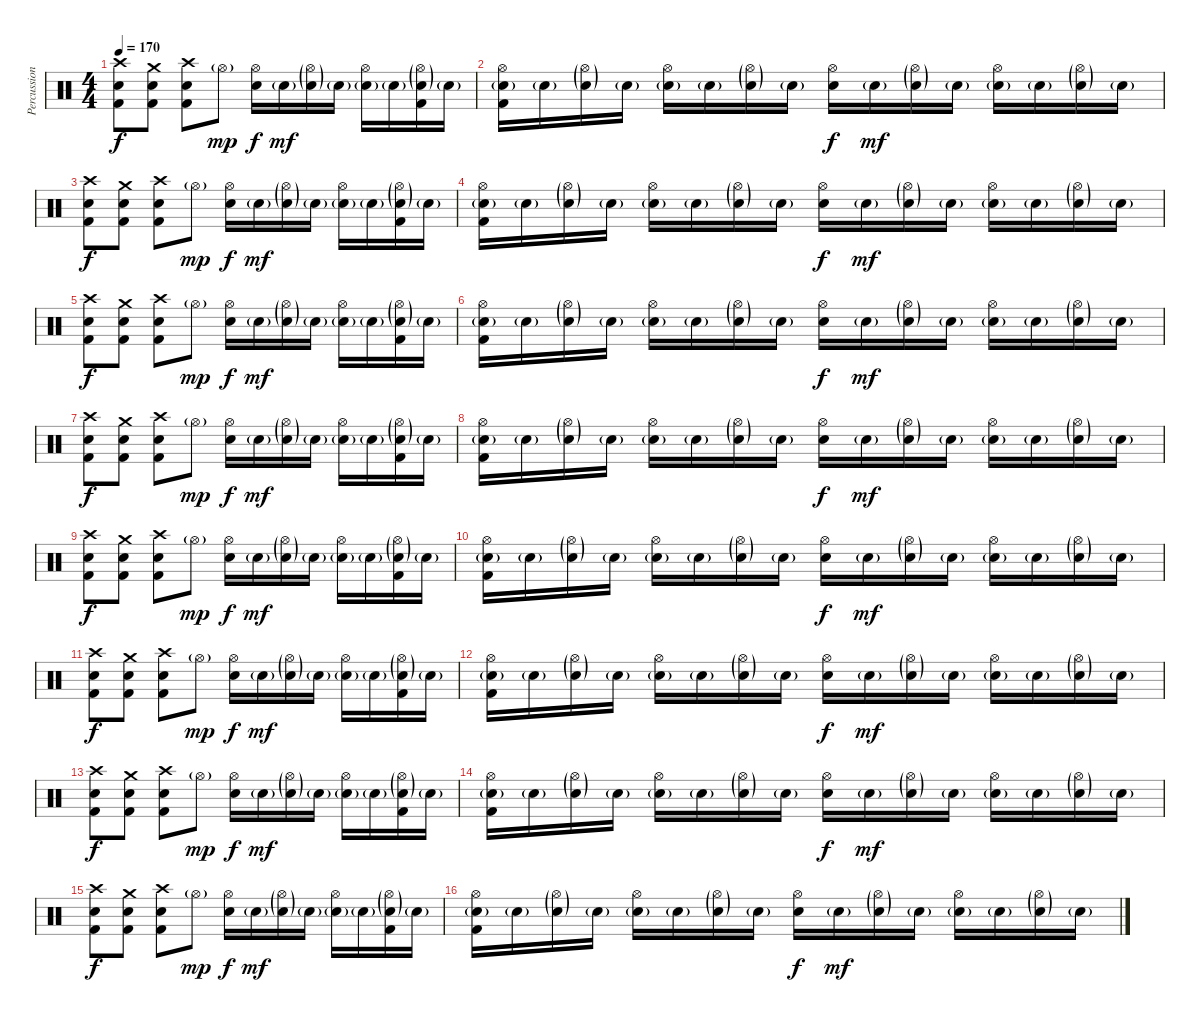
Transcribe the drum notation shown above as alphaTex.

\track ("Percussion" "Percussion") {instrument percussion}
\staff {score}
\articulation defaults
\ts (4 4)
\tempo 170
\clef neutral
\ks c
("Crash high (hit)" "Kick (hit) 2" "Electric Snare (hit)").8{dy f} ("Crash medium (hit)" "Kick (hit) 2" "Electric Snare (hit)").8 ("Crash high (hit)" "Kick (hit) 2" "Electric Snare (hit)").8 "Hi-Hat (open)"{g}.8{dy mp} ("Hi-Hat (open)" "Electric Snare (hit)").16{dy f} "Electric Snare (hit)"{g}.16{dy mf} ("Hi-Hat (open)"{g} "Electric Snare (hit)"{g}).16 "Electric Snare (hit)"{g}.16 ("Hi-Hat (open)" "Electric Snare (hit)"{g}).16 "Electric Snare (hit)"{g}.16 ("Hi-Hat (open)"{g} "Kick (hit) 2" "Electric Snare (hit)"{g}).16 "Electric Snare (hit)"{g}.16 |
("Hi-Hat (open)" "Kick (hit) 2" "Electric Snare (hit)"{g}).16 "Electric Snare (hit)"{g}.16 ("Hi-Hat (open)"{g} "Electric Snare (hit)"{g}).16 "Electric Snare (hit)"{g}.16 ("Hi-Hat (open)" "Electric Snare (hit)"{g}).16 "Electric Snare (hit)"{g}.16 ("Hi-Hat (open)"{g} "Electric Snare (hit)"{g}).16 "Electric Snare (hit)"{g}.16 ("Hi-Hat (open)" "Electric Snare (hit)").16{dy f} "Electric Snare (hit)"{g}.16{dy mf} ("Hi-Hat (open)"{g} "Electric Snare (hit)"{g}).16 "Electric Snare (hit)"{g}.16 ("Hi-Hat (open)" "Electric Snare (hit)"{g}).16 "Electric Snare (hit)"{g}.16 ("Hi-Hat (open)"{g} "Electric Snare (hit)"{g}).16 "Electric Snare (hit)"{g}.16 |
("Crash high (hit)" "Kick (hit) 2" "Electric Snare (hit)").8{dy f} ("Crash medium (hit)" "Kick (hit) 2" "Electric Snare (hit)").8 ("Crash high (hit)" "Kick (hit) 2" "Electric Snare (hit)").8 "Hi-Hat (open)"{g}.8{dy mp} ("Hi-Hat (open)" "Electric Snare (hit)").16{dy f} "Electric Snare (hit)"{g}.16{dy mf} ("Hi-Hat (open)"{g} "Electric Snare (hit)"{g}).16 "Electric Snare (hit)"{g}.16 ("Hi-Hat (open)" "Electric Snare (hit)"{g}).16 "Electric Snare (hit)"{g}.16 ("Hi-Hat (open)"{g} "Kick (hit) 2" "Electric Snare (hit)"{g}).16 "Electric Snare (hit)"{g}.16 |
("Hi-Hat (open)" "Kick (hit) 2" "Electric Snare (hit)"{g}).16 "Electric Snare (hit)"{g}.16 ("Hi-Hat (open)"{g} "Electric Snare (hit)"{g}).16 "Electric Snare (hit)"{g}.16 ("Hi-Hat (open)" "Electric Snare (hit)"{g}).16 "Electric Snare (hit)"{g}.16 ("Hi-Hat (open)"{g} "Electric Snare (hit)"{g}).16 "Electric Snare (hit)"{g}.16 ("Hi-Hat (open)" "Electric Snare (hit)").16{dy f} "Electric Snare (hit)"{g}.16{dy mf} ("Hi-Hat (open)"{g} "Electric Snare (hit)"{g}).16 "Electric Snare (hit)"{g}.16 ("Hi-Hat (open)" "Electric Snare (hit)"{g}).16 "Electric Snare (hit)"{g}.16 ("Hi-Hat (open)"{g} "Electric Snare (hit)"{g}).16 "Electric Snare (hit)"{g}.16 |
("Crash high (hit)" "Kick (hit) 2" "Electric Snare (hit)").8{dy f} ("Crash medium (hit)" "Kick (hit) 2" "Electric Snare (hit)").8 ("Crash high (hit)" "Kick (hit) 2" "Electric Snare (hit)").8 "Hi-Hat (open)"{g}.8{dy mp} ("Hi-Hat (open)" "Electric Snare (hit)").16{dy f} "Electric Snare (hit)"{g}.16{dy mf} ("Hi-Hat (open)"{g} "Electric Snare (hit)"{g}).16 "Electric Snare (hit)"{g}.16 ("Hi-Hat (open)" "Electric Snare (hit)"{g}).16 "Electric Snare (hit)"{g}.16 ("Hi-Hat (open)"{g} "Kick (hit) 2" "Electric Snare (hit)"{g}).16 "Electric Snare (hit)"{g}.16 |
("Hi-Hat (open)" "Kick (hit) 2" "Electric Snare (hit)"{g}).16 "Electric Snare (hit)"{g}.16 ("Hi-Hat (open)"{g} "Electric Snare (hit)"{g}).16 "Electric Snare (hit)"{g}.16 ("Hi-Hat (open)" "Electric Snare (hit)"{g}).16 "Electric Snare (hit)"{g}.16 ("Hi-Hat (open)"{g} "Electric Snare (hit)"{g}).16 "Electric Snare (hit)"{g}.16 ("Hi-Hat (open)" "Electric Snare (hit)").16{dy f} "Electric Snare (hit)"{g}.16{dy mf} ("Hi-Hat (open)"{g} "Electric Snare (hit)"{g}).16 "Electric Snare (hit)"{g}.16 ("Hi-Hat (open)" "Electric Snare (hit)"{g}).16 "Electric Snare (hit)"{g}.16 ("Hi-Hat (open)"{g} "Electric Snare (hit)"{g}).16 "Electric Snare (hit)"{g}.16 |
("Crash high (hit)" "Kick (hit) 2" "Electric Snare (hit)").8{dy f} ("Crash medium (hit)" "Kick (hit) 2" "Electric Snare (hit)").8 ("Crash high (hit)" "Kick (hit) 2" "Electric Snare (hit)").8 "Hi-Hat (open)"{g}.8{dy mp} ("Hi-Hat (open)" "Electric Snare (hit)").16{dy f} "Electric Snare (hit)"{g}.16{dy mf} ("Hi-Hat (open)"{g} "Electric Snare (hit)"{g}).16 "Electric Snare (hit)"{g}.16 ("Hi-Hat (open)" "Electric Snare (hit)"{g}).16 "Electric Snare (hit)"{g}.16 ("Hi-Hat (open)"{g} "Kick (hit) 2" "Electric Snare (hit)"{g}).16 "Electric Snare (hit)"{g}.16 |
("Hi-Hat (open)" "Kick (hit) 2" "Electric Snare (hit)"{g}).16 "Electric Snare (hit)"{g}.16 ("Hi-Hat (open)"{g} "Electric Snare (hit)"{g}).16 "Electric Snare (hit)"{g}.16 ("Hi-Hat (open)" "Electric Snare (hit)"{g}).16 "Electric Snare (hit)"{g}.16 ("Hi-Hat (open)"{g} "Electric Snare (hit)"{g}).16 "Electric Snare (hit)"{g}.16 ("Hi-Hat (open)" "Electric Snare (hit)").16{dy f} "Electric Snare (hit)"{g}.16{dy mf} ("Hi-Hat (open)"{g} "Electric Snare (hit)"{g}).16 "Electric Snare (hit)"{g}.16 ("Hi-Hat (open)" "Electric Snare (hit)"{g}).16 "Electric Snare (hit)"{g}.16 ("Hi-Hat (open)"{g} "Electric Snare (hit)"{g}).16 "Electric Snare (hit)"{g}.16 |
("Crash high (hit)" "Kick (hit) 2" "Electric Snare (hit)").8{dy f} ("Crash medium (hit)" "Kick (hit) 2" "Electric Snare (hit)").8 ("Crash high (hit)" "Kick (hit) 2" "Electric Snare (hit)").8 "Hi-Hat (open)"{g}.8{dy mp} ("Hi-Hat (open)" "Electric Snare (hit)").16{dy f} "Electric Snare (hit)"{g}.16{dy mf} ("Hi-Hat (open)"{g} "Electric Snare (hit)"{g}).16 "Electric Snare (hit)"{g}.16 ("Hi-Hat (open)" "Electric Snare (hit)"{g}).16 "Electric Snare (hit)"{g}.16 ("Hi-Hat (open)"{g} "Kick (hit) 2" "Electric Snare (hit)"{g}).16 "Electric Snare (hit)"{g}.16 |
("Hi-Hat (open)" "Kick (hit) 2" "Electric Snare (hit)"{g}).16 "Electric Snare (hit)"{g}.16 ("Hi-Hat (open)"{g} "Electric Snare (hit)"{g}).16 "Electric Snare (hit)"{g}.16 ("Hi-Hat (open)" "Electric Snare (hit)"{g}).16 "Electric Snare (hit)"{g}.16 ("Hi-Hat (open)"{g} "Electric Snare (hit)"{g}).16 "Electric Snare (hit)"{g}.16 ("Hi-Hat (open)" "Electric Snare (hit)").16{dy f} "Electric Snare (hit)"{g}.16{dy mf} ("Hi-Hat (open)"{g} "Electric Snare (hit)"{g}).16 "Electric Snare (hit)"{g}.16 ("Hi-Hat (open)" "Electric Snare (hit)"{g}).16 "Electric Snare (hit)"{g}.16 ("Hi-Hat (open)"{g} "Electric Snare (hit)"{g}).16 "Electric Snare (hit)"{g}.16 |
("Crash high (hit)" "Kick (hit) 2" "Electric Snare (hit)").8{dy f} ("Crash medium (hit)" "Kick (hit) 2" "Electric Snare (hit)").8 ("Crash high (hit)" "Kick (hit) 2" "Electric Snare (hit)").8 "Hi-Hat (open)"{g}.8{dy mp} ("Hi-Hat (open)" "Electric Snare (hit)").16{dy f} "Electric Snare (hit)"{g}.16{dy mf} ("Hi-Hat (open)"{g} "Electric Snare (hit)"{g}).16 "Electric Snare (hit)"{g}.16 ("Hi-Hat (open)" "Electric Snare (hit)"{g}).16 "Electric Snare (hit)"{g}.16 ("Hi-Hat (open)"{g} "Kick (hit) 2" "Electric Snare (hit)"{g}).16 "Electric Snare (hit)"{g}.16 |
("Hi-Hat (open)" "Kick (hit) 2" "Electric Snare (hit)"{g}).16 "Electric Snare (hit)"{g}.16 ("Hi-Hat (open)"{g} "Electric Snare (hit)"{g}).16 "Electric Snare (hit)"{g}.16 ("Hi-Hat (open)" "Electric Snare (hit)"{g}).16 "Electric Snare (hit)"{g}.16 ("Hi-Hat (open)"{g} "Electric Snare (hit)"{g}).16 "Electric Snare (hit)"{g}.16 ("Hi-Hat (open)" "Electric Snare (hit)").16{dy f} "Electric Snare (hit)"{g}.16{dy mf} ("Hi-Hat (open)"{g} "Electric Snare (hit)"{g}).16 "Electric Snare (hit)"{g}.16 ("Hi-Hat (open)" "Electric Snare (hit)"{g}).16 "Electric Snare (hit)"{g}.16 ("Hi-Hat (open)"{g} "Electric Snare (hit)"{g}).16 "Electric Snare (hit)"{g}.16 |
("Crash high (hit)" "Kick (hit) 2" "Electric Snare (hit)").8{dy f} ("Crash medium (hit)" "Kick (hit) 2" "Electric Snare (hit)").8 ("Crash high (hit)" "Kick (hit) 2" "Electric Snare (hit)").8 "Hi-Hat (open)"{g}.8{dy mp} ("Hi-Hat (open)" "Electric Snare (hit)").16{dy f} "Electric Snare (hit)"{g}.16{dy mf} ("Hi-Hat (open)"{g} "Electric Snare (hit)"{g}).16 "Electric Snare (hit)"{g}.16 ("Hi-Hat (open)" "Electric Snare (hit)"{g}).16 "Electric Snare (hit)"{g}.16 ("Hi-Hat (open)"{g} "Kick (hit) 2" "Electric Snare (hit)"{g}).16 "Electric Snare (hit)"{g}.16 |
("Hi-Hat (open)" "Kick (hit) 2" "Electric Snare (hit)"{g}).16 "Electric Snare (hit)"{g}.16 ("Hi-Hat (open)"{g} "Electric Snare (hit)"{g}).16 "Electric Snare (hit)"{g}.16 ("Hi-Hat (open)" "Electric Snare (hit)"{g}).16 "Electric Snare (hit)"{g}.16 ("Hi-Hat (open)"{g} "Electric Snare (hit)"{g}).16 "Electric Snare (hit)"{g}.16 ("Hi-Hat (open)" "Electric Snare (hit)").16{dy f} "Electric Snare (hit)"{g}.16{dy mf} ("Hi-Hat (open)"{g} "Electric Snare (hit)"{g}).16 "Electric Snare (hit)"{g}.16 ("Hi-Hat (open)" "Electric Snare (hit)"{g}).16 "Electric Snare (hit)"{g}.16 ("Hi-Hat (open)"{g} "Electric Snare (hit)"{g}).16 "Electric Snare (hit)"{g}.16 |
("Crash high (hit)" "Kick (hit) 2" "Electric Snare (hit)").8{dy f} ("Crash medium (hit)" "Kick (hit) 2" "Electric Snare (hit)").8 ("Crash high (hit)" "Kick (hit) 2" "Electric Snare (hit)").8 "Hi-Hat (open)"{g}.8{dy mp} ("Hi-Hat (open)" "Electric Snare (hit)").16{dy f} "Electric Snare (hit)"{g}.16{dy mf} ("Hi-Hat (open)"{g} "Electric Snare (hit)"{g}).16 "Electric Snare (hit)"{g}.16 ("Hi-Hat (open)" "Electric Snare (hit)"{g}).16 "Electric Snare (hit)"{g}.16 ("Hi-Hat (open)"{g} "Kick (hit) 2" "Electric Snare (hit)"{g}).16 "Electric Snare (hit)"{g}.16 |
("Hi-Hat (open)" "Kick (hit) 2" "Electric Snare (hit)"{g}).16 "Electric Snare (hit)"{g}.16 ("Hi-Hat (open)"{g} "Electric Snare (hit)"{g}).16 "Electric Snare (hit)"{g}.16 ("Hi-Hat (open)" "Electric Snare (hit)"{g}).16 "Electric Snare (hit)"{g}.16 ("Hi-Hat (open)"{g} "Electric Snare (hit)"{g}).16 "Electric Snare (hit)"{g}.16 ("Hi-Hat (open)" "Electric Snare (hit)").16{dy f} "Electric Snare (hit)"{g}.16{dy mf} ("Hi-Hat (open)"{g} "Electric Snare (hit)"{g}).16 "Electric Snare (hit)"{g}.16 ("Hi-Hat (open)" "Electric Snare (hit)"{g}).16 "Electric Snare (hit)"{g}.16 ("Hi-Hat (open)"{g} "Electric Snare (hit)"{g}).16 "Electric Snare (hit)"{g}.16
